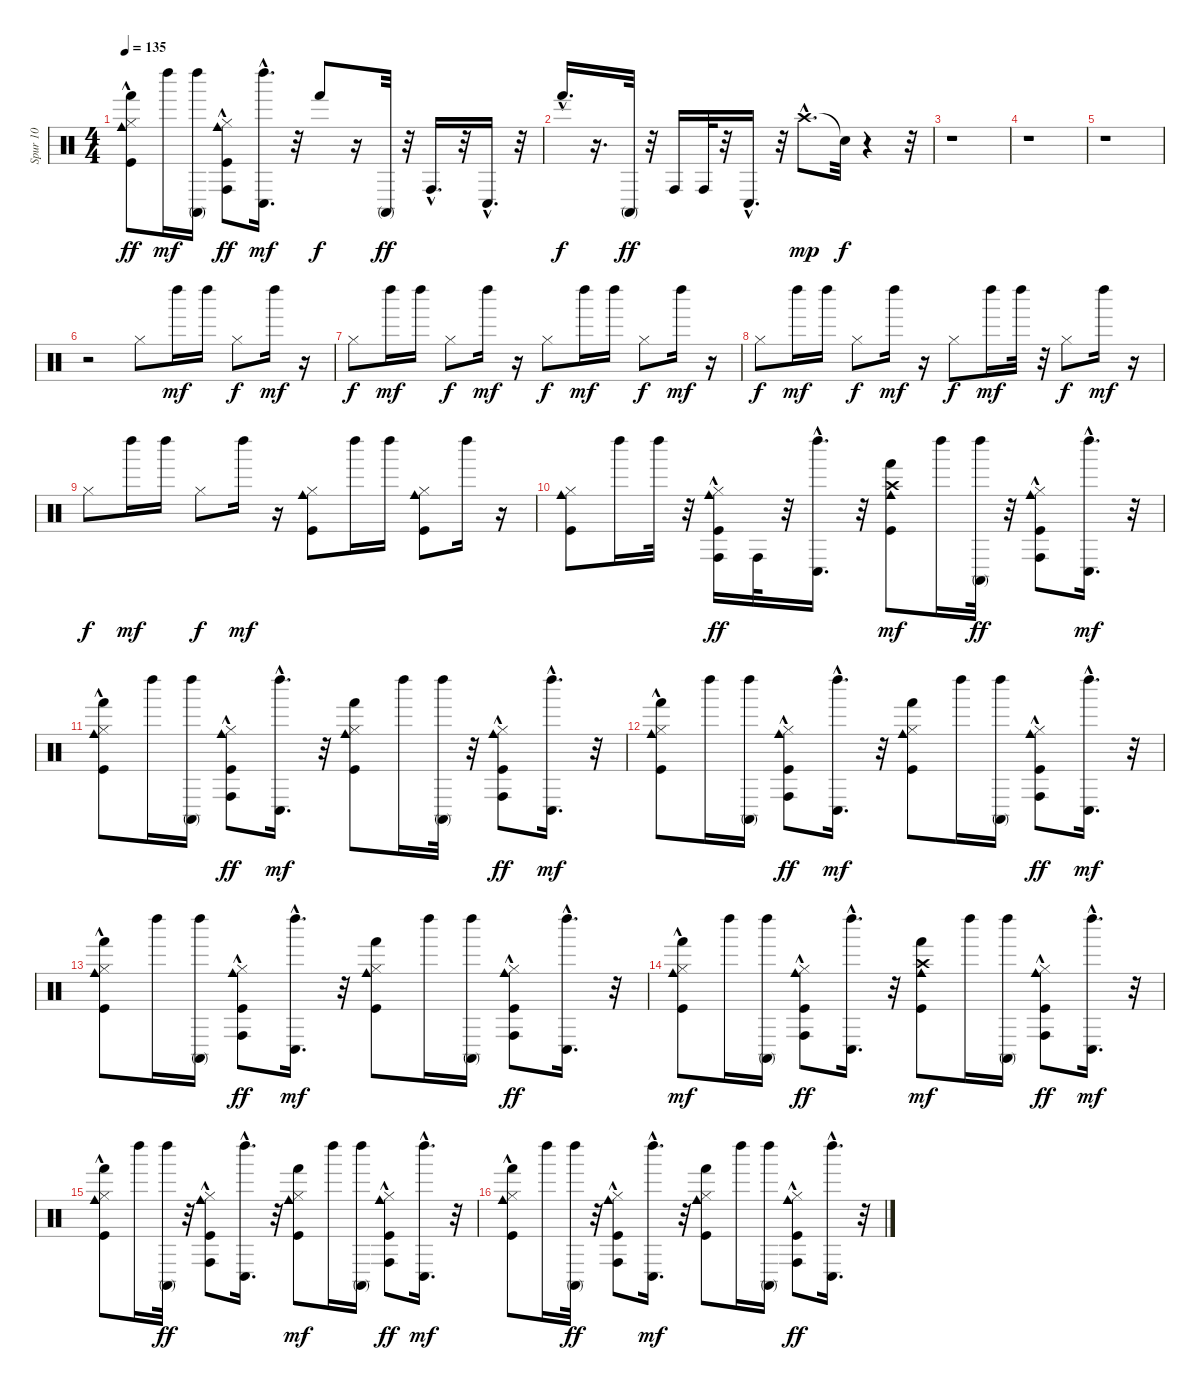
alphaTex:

\track ("Spur 10" "Spur 10") {instrument percussion}
\staff {score}
\articulation defaults
\ts (4 4)
\tempo 135
\clef neutral
\ks c
("Hi-Hat (closed)" "Cowbell medium (hit)" "Kick (hit)" "Hand (hit)"{hac}).8{dy ff} "Left Maraca (hit)".16{dy mf} ("Conga high (mute)" "Left Maraca (hit)").16 ("Kick (hit)"{hac} "Hi-Hat (closed)" "Cowbell medium (hit)" "Conga high (hit)"{hac}).8{dy ff} ("Conga low (hit)"{hac} "Left Maraca (hit)").16{d dy mf} r.32 "Hand (hit)".8{dy f} r.16 "Conga high (mute)".32{dy ff} r.32 "Conga high (hit)"{hac}.16{d} r.32 "Conga low (hit)"{hac}.16{d} r.32 |
"Hand (hit)"{hac}.16{d dy f} r.16{d} "Conga high (mute)".32{dy ff} r.32 "Conga high (hit)".16 "Conga high (hit)".32 r.32 "Conga low (hit)"{hac}.16{d} r.32 "Crash high (hit)"{hac}.8{d dy mp} "Snare (hit)"{t}.32{dy f} r.4 r.32 |
r.1 |
r.1 |
r.1 |
r.2 "Hi-Hat (closed)".8 "Left Maraca (hit)".16{dy mf} "Left Maraca (hit)".16 "Hi-Hat (closed)".8{dy f} "Left Maraca (hit)".16{dy mf} r.16 |
"Hi-Hat (closed)".8{dy f} "Left Maraca (hit)".16{dy mf} "Left Maraca (hit)".16 "Hi-Hat (closed)".8{dy f} "Left Maraca (hit)".16{dy mf} r.16 "Hi-Hat (closed)".8{dy f} "Left Maraca (hit)".16{dy mf} "Left Maraca (hit)".16 "Hi-Hat (closed)".8{dy f} "Left Maraca (hit)".16{dy mf} r.16 |
"Hi-Hat (closed)".8{dy f} "Left Maraca (hit)".16{dy mf} "Left Maraca (hit)".16 "Hi-Hat (closed)".8{dy f} "Left Maraca (hit)".16{dy mf} r.16 "Hi-Hat (closed)".8{dy f} "Left Maraca (hit)".16{dy mf} "Left Maraca (hit)".32 r.32 "Hi-Hat (closed)".8{dy f} "Left Maraca (hit)".16{dy mf} r.16 |
"Hi-Hat (closed)".8{dy f} "Left Maraca (hit)".16{dy mf} "Left Maraca (hit)".16 "Hi-Hat (closed)".8{dy f} "Left Maraca (hit)".16{dy mf} r.16 ("Hi-Hat (closed)" "Kick (hit)" "Cowbell medium (hit)").8 "Left Maraca (hit)".16 "Left Maraca (hit)".16 ("Kick (hit)" "Hi-Hat (closed)" "Cowbell medium (hit)").8 "Left Maraca (hit)".16 r.16 |
("Hi-Hat (closed)" "Kick (hit)" "Cowbell medium (hit)").8 "Left Maraca (hit)".16 "Left Maraca (hit)".32 r.32 ("Hi-Hat (closed)" "Kick (hit)"{hac} "Cowbell medium (hit)" "Conga high (hit)").16{dy ff} "Conga high (hit)".32 r.32 ("Left Maraca (hit)" "Conga low (hit)"{hac}).16{d} r.32 ("Crash high (hit)" "Kick (hit)" "Cowbell medium (hit)" "Hand (hit)").8{dy mf} "Left Maraca (hit)".16 ("Left Maraca (hit)" "Conga high (mute)").32{dy ff} r.32 ("Kick (hit)" "Hi-Hat (closed)" "Cowbell medium (hit)" "Conga high (hit)"{hac}).8 ("Conga low (hit)"{hac} "Left Maraca (hit)").16{d dy mf} r.32 |
("Kick (hit)" "Hi-Hat (closed)" "Cowbell medium (hit)" "Hand (hit)"{hac}).8 "Left Maraca (hit)".16 ("Conga high (mute)" "Left Maraca (hit)").16 ("Kick (hit)"{hac} "Hi-Hat (closed)" "Cowbell medium (hit)" "Conga high (hit)"{hac}).8{dy ff} ("Conga low (hit)"{hac} "Left Maraca (hit)").16{d dy mf} r.32 ("Kick (hit)" "Hi-Hat (closed)" "Cowbell medium (hit)" "Hand (hit)").8 "Left Maraca (hit)".16 ("Conga high (mute)" "Left Maraca (hit)").32 r.32 ("Hi-Hat (closed)" "Kick (hit)" "Cowbell medium (hit)" "Conga high (hit)"{hac}).8{dy ff} ("Conga low (hit)"{hac} "Left Maraca (hit)").16{d dy mf} r.32 |
("Kick (hit)" "Hi-Hat (closed)" "Cowbell medium (hit)" "Hand (hit)"{hac}).8 "Left Maraca (hit)".16 ("Conga high (mute)" "Left Maraca (hit)").16 ("Kick (hit)"{hac} "Hi-Hat (closed)" "Cowbell medium (hit)" "Conga high (hit)"{hac}).8{dy ff} ("Conga low (hit)"{hac} "Left Maraca (hit)").16{d dy mf} r.32 ("Kick (hit)" "Hi-Hat (closed)" "Cowbell medium (hit)" "Hand (hit)").8 "Left Maraca (hit)".16 ("Conga high (mute)" "Left Maraca (hit)").16 ("Hi-Hat (closed)" "Kick (hit)" "Cowbell medium (hit)" "Conga high (hit)"{hac}).8{dy ff} ("Conga low (hit)"{hac} "Left Maraca (hit)").16{d dy mf} r.32 |
("Kick (hit)" "Hi-Hat (closed)" "Cowbell medium (hit)" "Hand (hit)"{hac}).8 "Left Maraca (hit)".16 ("Conga high (mute)" "Left Maraca (hit)").16 ("Kick (hit)"{hac} "Hi-Hat (closed)" "Cowbell medium (hit)" "Conga high (hit)"{hac}).8{dy ff} ("Conga low (hit)"{hac} "Left Maraca (hit)").16{d dy mf} r.32 ("Hi-Hat (closed)" "Kick (hit)" "Cowbell medium (hit)" "Hand (hit)").8 "Left Maraca (hit)".16 ("Conga high (mute)" "Left Maraca (hit)").16 ("Kick (hit)" "Hi-Hat (closed)" "Cowbell medium (hit)" "Conga high (hit)"{hac}).8{dy ff} ("Left Maraca (hit)" "Conga low (hit)"{hac}).16{d} r.32 |
("Kick (hit)" "Hi-Hat (closed)" "Cowbell medium (hit)" "Hand (hit)"{hac}).8{dy mf} "Left Maraca (hit)".16 ("Conga high (mute)" "Left Maraca (hit)").16 ("Hi-Hat (closed)" "Kick (hit)"{hac} "Cowbell medium (hit)" "Conga high (hit)"{hac}).8{dy ff} ("Left Maraca (hit)" "Conga low (hit)"{hac}).16{d} r.32 ("Kick (hit)" "Crash high (hit)" "Cowbell medium (hit)" "Hand (hit)").8{dy mf} "Left Maraca (hit)".16 ("Conga high (mute)" "Left Maraca (hit)").16 ("Kick (hit)" "Hi-Hat (closed)" "Cowbell medium (hit)" "Conga high (hit)"{hac}).8{dy ff} ("Conga low (hit)"{hac} "Left Maraca (hit)").16{d dy mf} r.32 |
("Kick (hit)" "Hi-Hat (closed)" "Cowbell medium (hit)" "Hand (hit)"{hac}).8 "Left Maraca (hit)".16 ("Left Maraca (hit)" "Conga high (mute)").32{dy ff} r.32 ("Hi-Hat (closed)" "Kick (hit)"{hac} "Cowbell medium (hit)" "Conga high (hit)"{hac}).8 ("Left Maraca (hit)" "Conga low (hit)"{hac}).16{d} r.32 ("Kick (hit)" "Hi-Hat (closed)" "Cowbell medium (hit)" "Hand (hit)").8{dy mf} "Left Maraca (hit)".16 ("Conga high (mute)" "Left Maraca (hit)").16 ("Kick (hit)" "Hi-Hat (closed)" "Cowbell medium (hit)" "Conga high (hit)"{hac}).8{dy ff} ("Conga low (hit)"{hac} "Left Maraca (hit)").16{d dy mf} r.32 |
("Kick (hit)" "Hi-Hat (closed)" "Cowbell medium (hit)" "Hand (hit)"{hac}).8 "Left Maraca (hit)".16 ("Left Maraca (hit)" "Conga high (mute)").32{dy ff} r.32 ("Hi-Hat (closed)" "Cowbell medium (hit)" "Kick (hit)"{hac} "Conga high (hit)"{hac}).8 ("Conga low (hit)"{hac} "Left Maraca (hit)").16{d dy mf} r.32 ("Kick (hit)" "Hi-Hat (closed)" "Cowbell medium (hit)" "Hand (hit)").8 "Left Maraca (hit)".16 ("Conga high (mute)" "Left Maraca (hit)").16 ("Hi-Hat (closed)" "Kick (hit)" "Cowbell medium (hit)" "Conga high (hit)"{hac}).8{dy ff} ("Left Maraca (hit)" "Conga low (hit)"{hac}).16{d} r.32
